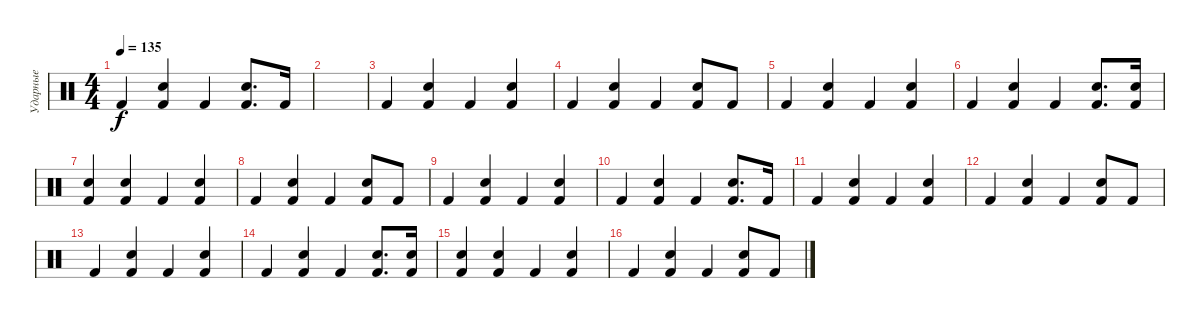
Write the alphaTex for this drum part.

\track ("Ударные" "Ударные") {instrument percussion}
\staff {score}
\articulation defaults
\ts (4 4)
\tempo 135
\clef neutral
\ks c "Kick (hit) 2".4{dy f}
("Hand Clap (hit)" "Kick (hit) 2").4 "Kick (hit) 2".4 ("Hand Clap (hit)" "Kick (hit) 2").8{d} "Kick (hit) 2".16 |
|
"Kick (hit) 2".4 ("Hand Clap (hit)" "Kick (hit) 2").4 "Kick (hit) 2".4 ("Hand Clap (hit)" "Kick (hit) 2").4 |
"Kick (hit) 2".4 ("Hand Clap (hit)" "Kick (hit) 2").4 "Kick (hit) 2".4 ("Hand Clap (hit)" "Kick (hit) 2").8 "Kick (hit) 2".8 |
"Kick (hit) 2".4 ("Hand Clap (hit)" "Kick (hit) 2").4 "Kick (hit) 2".4 ("Hand Clap (hit)" "Kick (hit) 2").4 |
"Kick (hit) 2".4 ("Hand Clap (hit)" "Kick (hit) 2").4 "Kick (hit) 2".4 ("Hand Clap (hit)" "Kick (hit) 2").8{d} ("Hand Clap (hit)" "Kick (hit) 2").16 |
("Hand Clap (hit)" "Kick (hit) 2").4 ("Hand Clap (hit)" "Kick (hit) 2").4 "Kick (hit) 2".4 ("Hand Clap (hit)" "Kick (hit) 2").4 |
"Kick (hit) 2".4 ("Hand Clap (hit)" "Kick (hit) 2").4 "Kick (hit) 2".4 ("Hand Clap (hit)" "Kick (hit) 2").8 "Kick (hit) 2".8 |
"Kick (hit) 2".4 ("Hand Clap (hit)" "Kick (hit) 2").4 "Kick (hit) 2".4 ("Hand Clap (hit)" "Kick (hit) 2").4 |
"Kick (hit) 2".4 ("Hand Clap (hit)" "Kick (hit) 2").4 "Kick (hit) 2".4 ("Hand Clap (hit)" "Kick (hit) 2").8{d} "Kick (hit) 2".16 |
"Kick (hit) 2".4 ("Hand Clap (hit)" "Kick (hit) 2").4 "Kick (hit) 2".4 ("Hand Clap (hit)" "Kick (hit) 2").4 |
"Kick (hit) 2".4 ("Hand Clap (hit)" "Kick (hit) 2").4 "Kick (hit) 2".4 ("Hand Clap (hit)" "Kick (hit) 2").8 "Kick (hit) 2".8 |
"Kick (hit) 2".4 ("Hand Clap (hit)" "Kick (hit) 2").4 "Kick (hit) 2".4 ("Hand Clap (hit)" "Kick (hit) 2").4 |
"Kick (hit) 2".4 ("Hand Clap (hit)" "Kick (hit) 2").4 "Kick (hit) 2".4 ("Hand Clap (hit)" "Kick (hit) 2").8{d} ("Hand Clap (hit)" "Kick (hit) 2").16 |
("Hand Clap (hit)" "Kick (hit) 2").4 ("Hand Clap (hit)" "Kick (hit) 2").4 "Kick (hit) 2".4 ("Hand Clap (hit)" "Kick (hit) 2").4 |
"Kick (hit) 2".4 ("Hand Clap (hit)" "Kick (hit) 2").4 "Kick (hit) 2".4 ("Hand Clap (hit)" "Kick (hit) 2").8 "Kick (hit) 2".8
